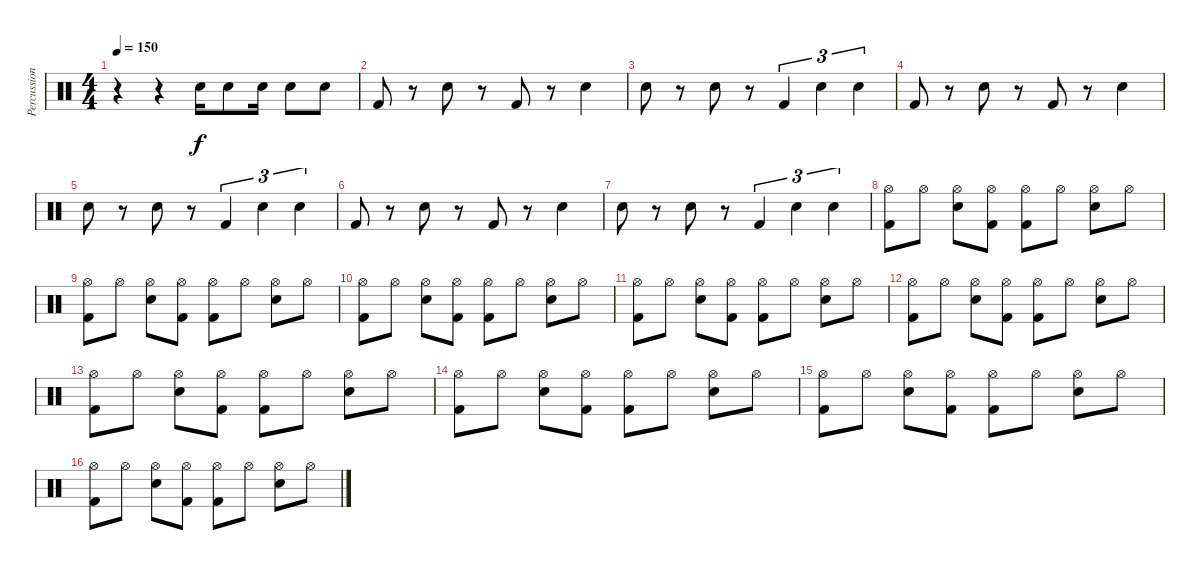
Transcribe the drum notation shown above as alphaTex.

\track ("Percussion" "Percussion") {instrument percussion}
\staff {score}
\articulation defaults
\ts (4 4)
\tempo 150
\clef neutral
\ks c
r.4{dy f} r.4 "Snare (hit) 2".16 "Snare (hit) 2".8 "Snare (hit) 2".16 "Snare (hit) 2".8 "Snare (hit) 2".8 |
"Kick (hit) 2".8 r.8 "Snare (hit) 2".8 r.8 "Kick (hit) 2".8 r.8 "Snare (hit) 2".4 |
"Snare (hit) 2".8 r.8 "Snare (hit) 2".8 r.8 "Kick (hit) 2".4{tu (3 2)} "Snare (hit) 2".4{tu (3 2)} "Snare (hit) 2".4{tu (3 2)} |
"Kick (hit) 2".8 r.8 "Snare (hit) 2".8 r.8 "Kick (hit) 2".8 r.8 "Snare (hit) 2".4 |
"Snare (hit) 2".8 r.8 "Snare (hit) 2".8 r.8 "Kick (hit) 2".4{tu (3 2)} "Snare (hit) 2".4{tu (3 2)} "Snare (hit) 2".4{tu (3 2)} |
"Kick (hit) 2".8 r.8 "Snare (hit) 2".8 r.8 "Kick (hit) 2".8 r.8 "Snare (hit) 2".4 |
"Snare (hit) 2".8 r.8 "Snare (hit) 2".8 r.8 "Kick (hit) 2".4{tu (3 2)} "Snare (hit) 2".4{tu (3 2)} "Snare (hit) 2".4{tu (3 2)} |
("Hi-Hat (open)" "Kick (hit) 2").8 "Hi-Hat (open)".8 ("Hi-Hat (open)" "Snare (hit) 2").8 ("Hi-Hat (open)" "Kick (hit) 2").8 ("Hi-Hat (open)" "Kick (hit) 2").8 "Hi-Hat (open)".8 ("Hi-Hat (open)" "Snare (hit) 2").8 "Hi-Hat (open)".8 |
("Hi-Hat (open)" "Kick (hit) 2").8 "Hi-Hat (open)".8 ("Hi-Hat (open)" "Snare (hit) 2").8 ("Hi-Hat (open)" "Kick (hit) 2").8 ("Hi-Hat (open)" "Kick (hit) 2").8 "Hi-Hat (open)".8 ("Hi-Hat (open)" "Snare (hit) 2").8 "Hi-Hat (open)".8 |
("Hi-Hat (open)" "Kick (hit) 2").8 "Hi-Hat (open)".8 ("Hi-Hat (open)" "Snare (hit) 2").8 ("Hi-Hat (open)" "Kick (hit) 2").8 ("Hi-Hat (open)" "Kick (hit) 2").8 "Hi-Hat (open)".8 ("Hi-Hat (open)" "Snare (hit) 2").8 "Hi-Hat (open)".8 |
("Hi-Hat (open)" "Kick (hit) 2").8 "Hi-Hat (open)".8 ("Hi-Hat (open)" "Snare (hit) 2").8 ("Hi-Hat (open)" "Kick (hit) 2").8 ("Hi-Hat (open)" "Kick (hit) 2").8 "Hi-Hat (open)".8 ("Hi-Hat (open)" "Snare (hit) 2").8 "Hi-Hat (open)".8 |
("Hi-Hat (open)" "Kick (hit) 2").8 "Hi-Hat (open)".8 ("Hi-Hat (open)" "Snare (hit) 2").8 ("Hi-Hat (open)" "Kick (hit) 2").8 ("Hi-Hat (open)" "Kick (hit) 2").8 "Hi-Hat (open)".8 ("Hi-Hat (open)" "Snare (hit) 2").8 "Hi-Hat (open)".8 |
("Hi-Hat (open)" "Kick (hit) 2").8 "Hi-Hat (open)".8 ("Hi-Hat (open)" "Snare (hit) 2").8 ("Hi-Hat (open)" "Kick (hit) 2").8 ("Hi-Hat (open)" "Kick (hit) 2").8 "Hi-Hat (open)".8 ("Hi-Hat (open)" "Snare (hit) 2").8 "Hi-Hat (open)".8 |
("Hi-Hat (open)" "Kick (hit) 2").8 "Hi-Hat (open)".8 ("Hi-Hat (open)" "Snare (hit) 2").8 ("Hi-Hat (open)" "Kick (hit) 2").8 ("Hi-Hat (open)" "Kick (hit) 2").8 "Hi-Hat (open)".8 ("Hi-Hat (open)" "Snare (hit) 2").8 "Hi-Hat (open)".8 |
("Hi-Hat (open)" "Kick (hit) 2").8 "Hi-Hat (open)".8 ("Hi-Hat (open)" "Snare (hit) 2").8 ("Hi-Hat (open)" "Kick (hit) 2").8 ("Hi-Hat (open)" "Kick (hit) 2").8 "Hi-Hat (open)".8 ("Hi-Hat (open)" "Snare (hit) 2").8 "Hi-Hat (open)".8 |
("Hi-Hat (open)" "Kick (hit) 2").8 "Hi-Hat (open)".8 ("Hi-Hat (open)" "Snare (hit) 2").8 ("Hi-Hat (open)" "Kick (hit) 2").8 ("Hi-Hat (open)" "Kick (hit) 2").8 "Hi-Hat (open)".8 ("Hi-Hat (open)" "Snare (hit) 2").8 "Hi-Hat (open)".8
